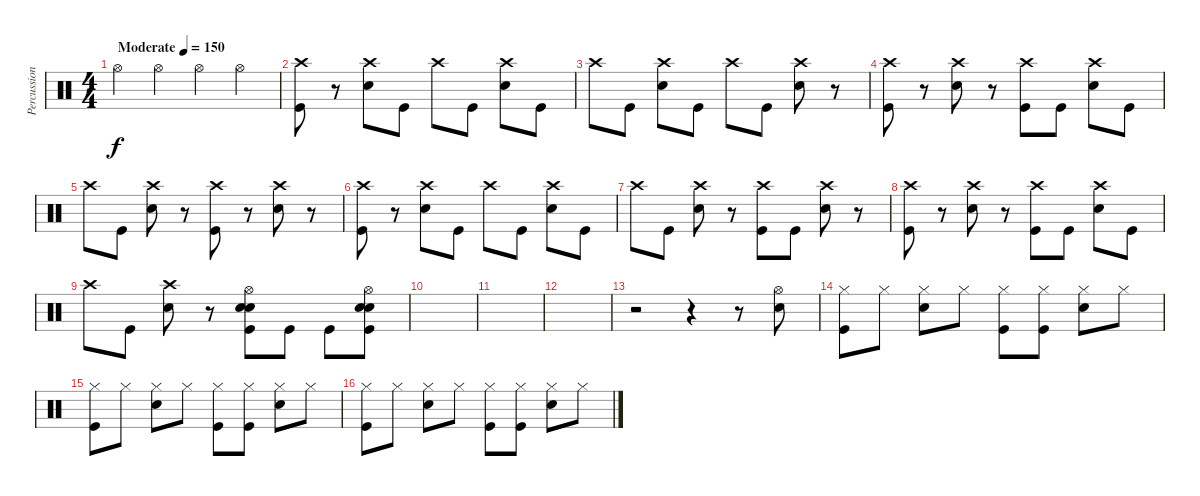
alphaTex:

\track ("Percussion" "Percussion") {instrument percussion}
\staff {score}
\articulation defaults
\ts (4 4)
\tempo (150 "Moderate")
\clef neutral
\ks c "Hi-Hat (open)".4{dy f} "Hi-Hat (open)".4 "Hi-Hat (open)".4 "Hi-Hat (open)".4
|
("Crash high (hit)" "Kick (hit)").8 r.8 ("Crash high (hit)" "Snare (hit) 2").8 "Kick (hit)".8 "Crash high (hit)".8 "Kick (hit)".8 ("Crash high (hit)" "Snare (hit) 2").8 "Kick (hit)".8 |
"Crash high (hit)".8 "Kick (hit)".8 ("Crash high (hit)" "Snare (hit) 2").8 "Kick (hit)".8 "Crash high (hit)".8 "Kick (hit)".8 ("Crash high (hit)" "Snare (hit) 2").8 r.8 |
("Crash high (hit)" "Kick (hit)").8 r.8 ("Crash high (hit)" "Snare (hit) 2").8 r.8 ("Crash high (hit)" "Kick (hit)").8 "Kick (hit)".8 ("Crash high (hit)" "Snare (hit) 2").8 "Kick (hit)".8 |
"Crash high (hit)".8 "Kick (hit)".8 ("Crash high (hit)" "Snare (hit) 2").8 r.8 ("Crash high (hit)" "Kick (hit)").8 r.8 ("Crash high (hit)" "Snare (hit) 2").8 r.8 |
("Crash high (hit)" "Kick (hit)").8 r.8 ("Crash high (hit)" "Snare (hit) 2").8 "Kick (hit)".8 "Crash high (hit)".8 "Kick (hit)".8 ("Crash high (hit)" "Snare (hit) 2").8 "Kick (hit)".8 |
"Crash high (hit)".8 "Kick (hit)".8 ("Crash high (hit)" "Snare (hit) 2").8 r.8 ("Crash high (hit)" "Kick (hit)").8 "Kick (hit)".8 ("Crash high (hit)" "Snare (hit) 2").8 r.8 |
("Crash high (hit)" "Kick (hit)").8 r.8 ("Crash high (hit)" "Snare (hit) 2").8 r.8 ("Crash high (hit)" "Kick (hit)").8 "Kick (hit)".8 ("Crash high (hit)" "Snare (hit) 2").8 "Kick (hit)".8 |
"Crash high (hit)".8 "Kick (hit)".8 ("Crash high (hit)" "Snare (hit) 2").8 r.8 ("Hi-Hat (open)" "Snare (hit) 2" "Snare (hit) 2" "Kick (hit)").8 "Kick (hit)".8 "Kick (hit)".8 ("Hi-Hat (open)" "Snare (hit) 2" "Snare (hit) 2" "Kick (hit)").8 |
|
|
|
r.2 r.4 r.8 ("Hi-Hat (open)" "Snare (hit) 2").8 |
("Hi-Hat (closed)" "Kick (hit)").8 "Hi-Hat (closed)".8 ("Hi-Hat (closed)" "Snare (hit) 2").8 "Hi-Hat (closed)".8 ("Hi-Hat (closed)" "Kick (hit)").8 ("Hi-Hat (closed)" "Kick (hit)").8 ("Hi-Hat (closed)" "Snare (hit) 2").8 "Hi-Hat (closed)".8 |
("Hi-Hat (closed)" "Kick (hit)").8 "Hi-Hat (closed)".8 ("Hi-Hat (closed)" "Snare (hit) 2").8 "Hi-Hat (closed)".8 ("Hi-Hat (closed)" "Kick (hit)").8 ("Hi-Hat (closed)" "Kick (hit)").8 ("Hi-Hat (closed)" "Snare (hit) 2").8 "Hi-Hat (closed)".8 |
("Hi-Hat (closed)" "Kick (hit)").8 "Hi-Hat (closed)".8 ("Hi-Hat (closed)" "Snare (hit) 2").8 "Hi-Hat (closed)".8 ("Hi-Hat (closed)" "Kick (hit)").8 ("Hi-Hat (closed)" "Kick (hit)").8 ("Hi-Hat (closed)" "Snare (hit) 2").8 "Hi-Hat (closed)".8
